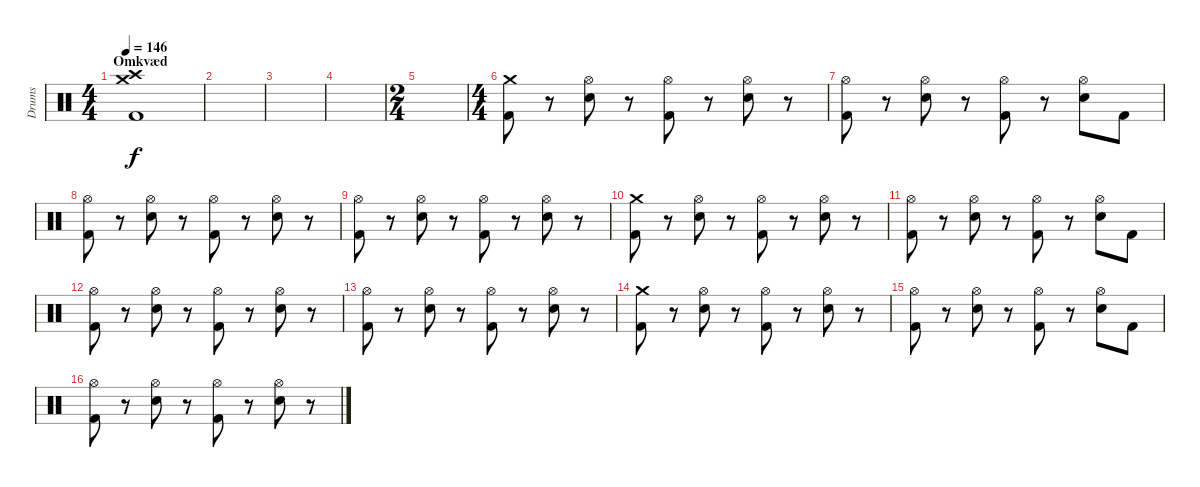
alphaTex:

\track ("Drums" "Drums") {instrument percussion}
\staff {score}
\articulation defaults
\ts (4 4)
\section ("" "Omkvæd")
\tempo 146
\clef neutral
\ks c
("Crash high (hit)" "Crash medium (hit)" "Kick (hit) 2").1{dy f} |
|
|
|
\ts (2 4)
|
\ts (4 4)
("Crash medium (hit)" "Kick (hit) 2").8 r.8 ("Hi-Hat (open)" "Electric Snare (hit)").8 r.8 ("Hi-Hat (open)" "Kick (hit) 2").8 r.8 ("Hi-Hat (open)" "Electric Snare (hit)").8 r.8 |
("Hi-Hat (open)" "Kick (hit) 2").8 r.8 ("Hi-Hat (open)" "Electric Snare (hit)").8 r.8 ("Hi-Hat (open)" "Kick (hit) 2").8 r.8 ("Hi-Hat (open)" "Electric Snare (hit)").8 "Kick (hit) 2".8 |
("Hi-Hat (open)" "Kick (hit) 2").8 r.8 ("Hi-Hat (open)" "Electric Snare (hit)").8 r.8 ("Hi-Hat (open)" "Kick (hit) 2").8 r.8 ("Hi-Hat (open)" "Electric Snare (hit)").8 r.8 |
("Hi-Hat (open)" "Kick (hit) 2").8 r.8 ("Hi-Hat (open)" "Electric Snare (hit)").8 r.8 ("Hi-Hat (open)" "Kick (hit) 2").8 r.8 ("Hi-Hat (open)" "Electric Snare (hit)").8 r.8 |
("Crash medium (hit)" "Kick (hit) 2").8 r.8 ("Hi-Hat (open)" "Electric Snare (hit)").8 r.8 ("Hi-Hat (open)" "Kick (hit) 2").8 r.8 ("Hi-Hat (open)" "Electric Snare (hit)").8 r.8 |
("Hi-Hat (open)" "Kick (hit) 2").8 r.8 ("Hi-Hat (open)" "Electric Snare (hit)").8 r.8 ("Hi-Hat (open)" "Kick (hit) 2").8 r.8 ("Hi-Hat (open)" "Electric Snare (hit)").8 "Kick (hit) 2".8 |
("Hi-Hat (open)" "Kick (hit) 2").8 r.8 ("Hi-Hat (open)" "Electric Snare (hit)").8 r.8 ("Hi-Hat (open)" "Kick (hit) 2").8 r.8 ("Hi-Hat (open)" "Electric Snare (hit)").8 r.8 |
("Hi-Hat (open)" "Kick (hit) 2").8 r.8 ("Hi-Hat (open)" "Electric Snare (hit)").8 r.8 ("Hi-Hat (open)" "Kick (hit) 2").8 r.8 ("Hi-Hat (open)" "Electric Snare (hit)").8 r.8 |
("Crash medium (hit)" "Kick (hit) 2").8 r.8 ("Hi-Hat (open)" "Electric Snare (hit)").8 r.8 ("Hi-Hat (open)" "Kick (hit) 2").8 r.8 ("Hi-Hat (open)" "Electric Snare (hit)").8 r.8 |
("Hi-Hat (open)" "Kick (hit) 2").8 r.8 ("Hi-Hat (open)" "Electric Snare (hit)").8 r.8 ("Hi-Hat (open)" "Kick (hit) 2").8 r.8 ("Hi-Hat (open)" "Electric Snare (hit)").8 "Kick (hit) 2".8 |
("Hi-Hat (open)" "Kick (hit) 2").8 r.8 ("Hi-Hat (open)" "Electric Snare (hit)").8 r.8 ("Hi-Hat (open)" "Kick (hit) 2").8 r.8 ("Hi-Hat (open)" "Electric Snare (hit)").8 r.8
